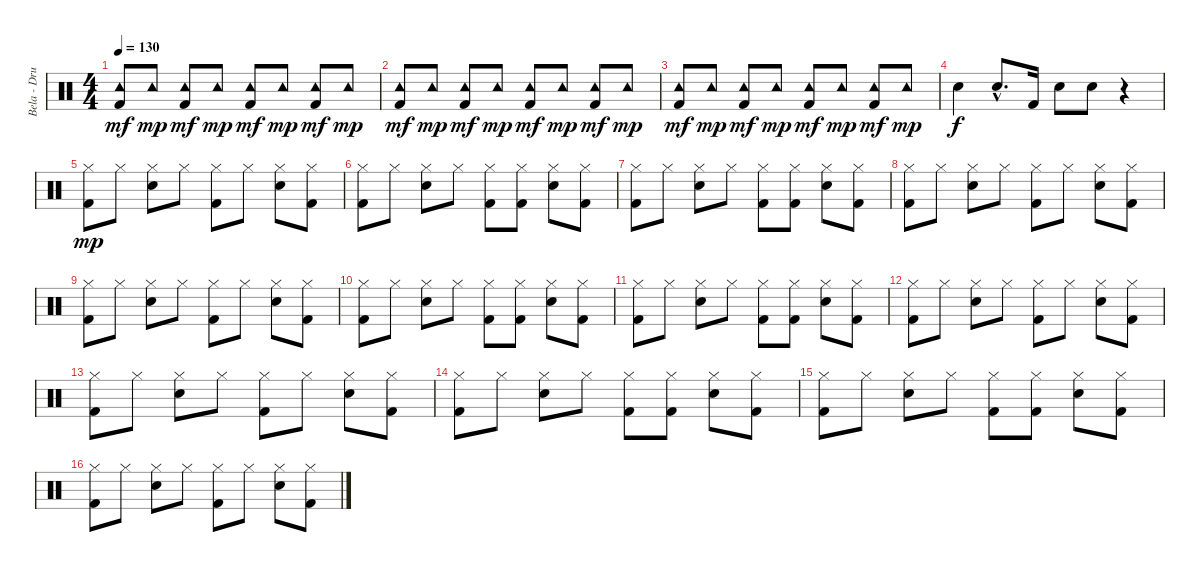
\track ("Bela - Drums" "Bela - Dru") {instrument percussion}
\staff {score}
\articulation defaults
\ts (4 4)
\tempo 130
\clef neutral
\ks c
("Tambourine (hit)" "Kick (hit) 2").8{dy mf} "Tambourine (hit)".8{dy mp} ("Tambourine (hit)" "Kick (hit) 2").8{dy mf} "Tambourine (hit)".8{dy mp} ("Tambourine (hit)" "Kick (hit) 2").8{dy mf} "Tambourine (hit)".8{dy mp} ("Tambourine (hit)" "Kick (hit) 2").8{dy mf} "Tambourine (hit)".8{dy mp} |
("Tambourine (hit)" "Kick (hit) 2").8{dy mf} "Tambourine (hit)".8{dy mp} ("Tambourine (hit)" "Kick (hit) 2").8{dy mf} "Tambourine (hit)".8{dy mp} ("Tambourine (hit)" "Kick (hit) 2").8{dy mf} "Tambourine (hit)".8{dy mp} ("Tambourine (hit)" "Kick (hit) 2").8{dy mf} "Tambourine (hit)".8{dy mp} |
("Tambourine (hit)" "Kick (hit) 2").8{dy mf} "Tambourine (hit)".8{dy mp} ("Tambourine (hit)" "Kick (hit) 2").8{dy mf} "Tambourine (hit)".8{dy mp} ("Tambourine (hit)" "Kick (hit) 2").8{dy mf} "Tambourine (hit)".8{dy mp} ("Tambourine (hit)" "Kick (hit) 2").8{dy mf} "Tambourine (hit)".8{dy mp} |
"Snare (hit) 2".4{dy f} "Snare (hit) 2"{hac}.8{d} "Kick (hit) 2".16 "Snare (hit) 2".8 "Snare (hit) 2".8 r.4 |
("Hi-Hat (closed)" "Kick (hit) 2").8{dy mp} "Hi-Hat (closed)".8 ("Hi-Hat (closed)" "Snare (hit) 2").8 "Hi-Hat (closed)".8 ("Hi-Hat (closed)" "Kick (hit) 2").8 "Hi-Hat (closed)".8 ("Hi-Hat (closed)" "Snare (hit) 2").8 ("Hi-Hat (closed)" "Kick (hit) 2").8 |
("Hi-Hat (closed)" "Kick (hit) 2").8 "Hi-Hat (closed)".8 ("Hi-Hat (closed)" "Snare (hit) 2").8 "Hi-Hat (closed)".8 ("Hi-Hat (closed)" "Kick (hit) 2").8 ("Hi-Hat (closed)" "Kick (hit) 2").8 ("Hi-Hat (closed)" "Snare (hit) 2").8 ("Hi-Hat (closed)" "Kick (hit) 2").8 |
("Hi-Hat (closed)" "Kick (hit) 2").8 "Hi-Hat (closed)".8 ("Hi-Hat (closed)" "Snare (hit) 2").8 "Hi-Hat (closed)".8 ("Hi-Hat (closed)" "Kick (hit) 2").8 ("Hi-Hat (closed)" "Kick (hit) 2").8 ("Hi-Hat (closed)" "Snare (hit) 2").8 ("Hi-Hat (closed)" "Kick (hit) 2").8 |
("Hi-Hat (closed)" "Kick (hit) 2").8 "Hi-Hat (closed)".8 ("Hi-Hat (closed)" "Snare (hit) 2").8 "Hi-Hat (closed)".8 ("Hi-Hat (closed)" "Kick (hit) 2").8 "Hi-Hat (closed)".8 ("Hi-Hat (closed)" "Snare (hit) 2").8 ("Hi-Hat (closed)" "Kick (hit) 2").8 |
("Hi-Hat (closed)" "Kick (hit) 2").8 "Hi-Hat (closed)".8 ("Hi-Hat (closed)" "Snare (hit) 2").8 "Hi-Hat (closed)".8 ("Hi-Hat (closed)" "Kick (hit) 2").8 "Hi-Hat (closed)".8 ("Hi-Hat (closed)" "Snare (hit) 2").8 ("Hi-Hat (closed)" "Kick (hit) 2").8 |
("Hi-Hat (closed)" "Kick (hit) 2").8 "Hi-Hat (closed)".8 ("Hi-Hat (closed)" "Snare (hit) 2").8 "Hi-Hat (closed)".8 ("Hi-Hat (closed)" "Kick (hit) 2").8 ("Hi-Hat (closed)" "Kick (hit) 2").8 ("Hi-Hat (closed)" "Snare (hit) 2").8 ("Hi-Hat (closed)" "Kick (hit) 2").8 |
("Hi-Hat (closed)" "Kick (hit) 2").8 "Hi-Hat (closed)".8 ("Hi-Hat (closed)" "Snare (hit) 2").8 "Hi-Hat (closed)".8 ("Hi-Hat (closed)" "Kick (hit) 2").8 ("Hi-Hat (closed)" "Kick (hit) 2").8 ("Hi-Hat (closed)" "Snare (hit) 2").8 ("Hi-Hat (closed)" "Kick (hit) 2").8 |
("Hi-Hat (closed)" "Kick (hit) 2").8 "Hi-Hat (closed)".8 ("Hi-Hat (closed)" "Snare (hit) 2").8 "Hi-Hat (closed)".8 ("Hi-Hat (closed)" "Kick (hit) 2").8 "Hi-Hat (closed)".8 ("Hi-Hat (closed)" "Snare (hit) 2").8 ("Hi-Hat (closed)" "Kick (hit) 2").8 |
("Hi-Hat (closed)" "Kick (hit) 2").8 "Hi-Hat (closed)".8 ("Hi-Hat (closed)" "Snare (hit) 2").8 "Hi-Hat (closed)".8 ("Hi-Hat (closed)" "Kick (hit) 2").8 "Hi-Hat (closed)".8 ("Hi-Hat (closed)" "Snare (hit) 2").8 ("Hi-Hat (closed)" "Kick (hit) 2").8 |
("Hi-Hat (closed)" "Kick (hit) 2").8 "Hi-Hat (closed)".8 ("Hi-Hat (closed)" "Snare (hit) 2").8 "Hi-Hat (closed)".8 ("Hi-Hat (closed)" "Kick (hit) 2").8 ("Hi-Hat (closed)" "Kick (hit) 2").8 ("Hi-Hat (closed)" "Snare (hit) 2").8 ("Hi-Hat (closed)" "Kick (hit) 2").8 |
("Hi-Hat (closed)" "Kick (hit) 2").8 "Hi-Hat (closed)".8 ("Hi-Hat (closed)" "Snare (hit) 2").8 "Hi-Hat (closed)".8 ("Hi-Hat (closed)" "Kick (hit) 2").8 ("Hi-Hat (closed)" "Kick (hit) 2").8 ("Hi-Hat (closed)" "Snare (hit) 2").8 ("Hi-Hat (closed)" "Kick (hit) 2").8 |
("Hi-Hat (closed)" "Kick (hit) 2").8 "Hi-Hat (closed)".8 ("Hi-Hat (closed)" "Snare (hit) 2").8 "Hi-Hat (closed)".8 ("Hi-Hat (closed)" "Kick (hit) 2").8 "Hi-Hat (closed)".8 ("Hi-Hat (closed)" "Snare (hit) 2").8 ("Hi-Hat (closed)" "Kick (hit) 2").8
